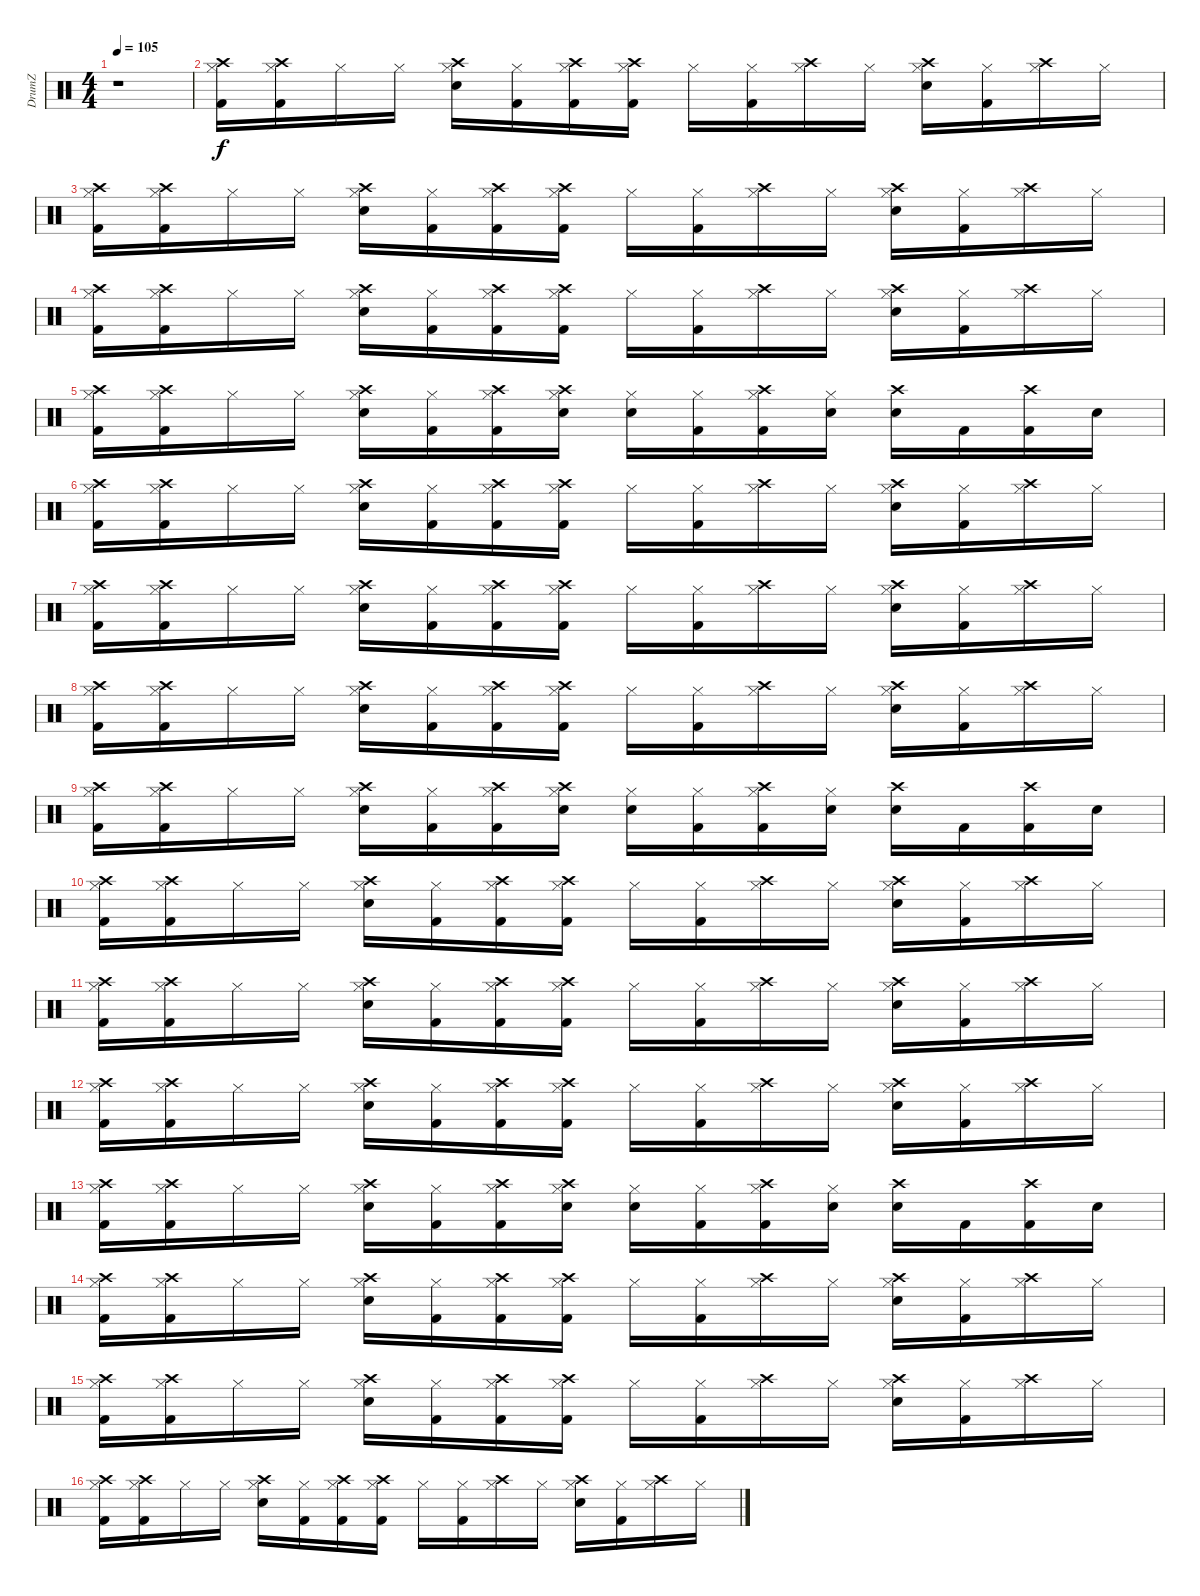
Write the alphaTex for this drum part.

\track ("DrumZ" "DrumZ") {instrument percussion}
\staff {score}
\articulation defaults
\ts (4 4)
\tempo 105
\clef neutral
\ks c
r.1{dy f} |
("Crash high (hit)" "Hi-Hat (closed)" "Kick (hit) 2").16 ("Crash high (hit)" "Hi-Hat (closed)" "Kick (hit) 2").16 "Hi-Hat (closed)".16 "Hi-Hat (closed)".16 ("Crash high (hit)" "Hi-Hat (closed)" "Electric Snare (hit)").16 ("Hi-Hat (closed)" "Kick (hit) 2").16 ("Crash high (hit)" "Hi-Hat (closed)" "Kick (hit) 2").16 ("Crash high (hit)" "Hi-Hat (closed)" "Kick (hit) 2").16 "Hi-Hat (closed)".16 ("Hi-Hat (closed)" "Kick (hit) 2").16 ("Crash high (hit)" "Hi-Hat (closed)").16 "Hi-Hat (closed)".16 ("Crash high (hit)" "Hi-Hat (closed)" "Electric Snare (hit)").16 ("Hi-Hat (closed)" "Kick (hit) 2").16 ("Crash high (hit)" "Hi-Hat (closed)").16 "Hi-Hat (closed)".16 |
("Crash high (hit)" "Hi-Hat (closed)" "Kick (hit) 2").16 ("Crash high (hit)" "Hi-Hat (closed)" "Kick (hit) 2").16 "Hi-Hat (closed)".16 "Hi-Hat (closed)".16 ("Crash high (hit)" "Hi-Hat (closed)" "Electric Snare (hit)").16 ("Hi-Hat (closed)" "Kick (hit) 2").16 ("Crash high (hit)" "Hi-Hat (closed)" "Kick (hit) 2").16 ("Crash high (hit)" "Hi-Hat (closed)" "Kick (hit) 2").16 "Hi-Hat (closed)".16 ("Hi-Hat (closed)" "Kick (hit) 2").16 ("Crash high (hit)" "Hi-Hat (closed)").16 "Hi-Hat (closed)".16 ("Crash high (hit)" "Hi-Hat (closed)" "Electric Snare (hit)").16 ("Hi-Hat (closed)" "Kick (hit) 2").16 ("Crash high (hit)" "Hi-Hat (closed)").16 "Hi-Hat (closed)".16 |
("Crash high (hit)" "Hi-Hat (closed)" "Kick (hit) 2").16 ("Crash high (hit)" "Hi-Hat (closed)" "Kick (hit) 2").16 "Hi-Hat (closed)".16 "Hi-Hat (closed)".16 ("Crash high (hit)" "Hi-Hat (closed)" "Electric Snare (hit)").16 ("Hi-Hat (closed)" "Kick (hit) 2").16 ("Crash high (hit)" "Hi-Hat (closed)" "Kick (hit) 2").16 ("Crash high (hit)" "Hi-Hat (closed)" "Kick (hit) 2").16 "Hi-Hat (closed)".16 ("Hi-Hat (closed)" "Kick (hit) 2").16 ("Crash high (hit)" "Hi-Hat (closed)").16 "Hi-Hat (closed)".16 ("Crash high (hit)" "Hi-Hat (closed)" "Electric Snare (hit)").16 ("Hi-Hat (closed)" "Kick (hit) 2").16 ("Crash high (hit)" "Hi-Hat (closed)").16 "Hi-Hat (closed)".16 |
("Crash high (hit)" "Hi-Hat (closed)" "Kick (hit) 2").16 ("Crash high (hit)" "Hi-Hat (closed)" "Kick (hit) 2").16 "Hi-Hat (closed)".16 "Hi-Hat (closed)".16 ("Crash high (hit)" "Hi-Hat (closed)" "Electric Snare (hit)").16 ("Hi-Hat (closed)" "Kick (hit) 2").16 ("Crash high (hit)" "Hi-Hat (closed)" "Kick (hit) 2").16 ("Crash high (hit)" "Hi-Hat (closed)" "Electric Snare (hit)").16 ("Hi-Hat (closed)" "Electric Snare (hit)").16 ("Hi-Hat (closed)" "Kick (hit) 2").16 ("Crash high (hit)" "Hi-Hat (closed)" "Kick (hit) 2").16 ("Hi-Hat (closed)" "Electric Snare (hit)").16 ("Crash high (hit)" "Electric Snare (hit)").16 "Kick (hit) 2".16 ("Crash high (hit)" "Kick (hit) 2").16 "Electric Snare (hit)".16 |
("Crash high (hit)" "Hi-Hat (closed)" "Kick (hit) 2").16 ("Crash high (hit)" "Hi-Hat (closed)" "Kick (hit) 2").16 "Hi-Hat (closed)".16 "Hi-Hat (closed)".16 ("Crash high (hit)" "Hi-Hat (closed)" "Electric Snare (hit)").16 ("Hi-Hat (closed)" "Kick (hit) 2").16 ("Crash high (hit)" "Hi-Hat (closed)" "Kick (hit) 2").16 ("Crash high (hit)" "Hi-Hat (closed)" "Kick (hit) 2").16 "Hi-Hat (closed)".16 ("Hi-Hat (closed)" "Kick (hit) 2").16 ("Crash high (hit)" "Hi-Hat (closed)").16 "Hi-Hat (closed)".16 ("Crash high (hit)" "Hi-Hat (closed)" "Electric Snare (hit)").16 ("Hi-Hat (closed)" "Kick (hit) 2").16 ("Crash high (hit)" "Hi-Hat (closed)").16 "Hi-Hat (closed)".16 |
("Crash high (hit)" "Hi-Hat (closed)" "Kick (hit) 2").16 ("Crash high (hit)" "Hi-Hat (closed)" "Kick (hit) 2").16 "Hi-Hat (closed)".16 "Hi-Hat (closed)".16 ("Crash high (hit)" "Hi-Hat (closed)" "Electric Snare (hit)").16 ("Hi-Hat (closed)" "Kick (hit) 2").16 ("Crash high (hit)" "Hi-Hat (closed)" "Kick (hit) 2").16 ("Crash high (hit)" "Hi-Hat (closed)" "Kick (hit) 2").16 "Hi-Hat (closed)".16 ("Hi-Hat (closed)" "Kick (hit) 2").16 ("Crash high (hit)" "Hi-Hat (closed)").16 "Hi-Hat (closed)".16 ("Crash high (hit)" "Hi-Hat (closed)" "Electric Snare (hit)").16 ("Hi-Hat (closed)" "Kick (hit) 2").16 ("Crash high (hit)" "Hi-Hat (closed)").16 "Hi-Hat (closed)".16 |
("Crash high (hit)" "Hi-Hat (closed)" "Kick (hit) 2").16 ("Crash high (hit)" "Hi-Hat (closed)" "Kick (hit) 2").16 "Hi-Hat (closed)".16 "Hi-Hat (closed)".16 ("Crash high (hit)" "Hi-Hat (closed)" "Electric Snare (hit)").16 ("Hi-Hat (closed)" "Kick (hit) 2").16 ("Crash high (hit)" "Hi-Hat (closed)" "Kick (hit) 2").16 ("Crash high (hit)" "Hi-Hat (closed)" "Kick (hit) 2").16 "Hi-Hat (closed)".16 ("Hi-Hat (closed)" "Kick (hit) 2").16 ("Crash high (hit)" "Hi-Hat (closed)").16 "Hi-Hat (closed)".16 ("Crash high (hit)" "Hi-Hat (closed)" "Electric Snare (hit)").16 ("Hi-Hat (closed)" "Kick (hit) 2").16 ("Crash high (hit)" "Hi-Hat (closed)").16 "Hi-Hat (closed)".16 |
("Crash high (hit)" "Hi-Hat (closed)" "Kick (hit) 2").16 ("Crash high (hit)" "Hi-Hat (closed)" "Kick (hit) 2").16 "Hi-Hat (closed)".16 "Hi-Hat (closed)".16 ("Crash high (hit)" "Hi-Hat (closed)" "Electric Snare (hit)").16 ("Hi-Hat (closed)" "Kick (hit) 2").16 ("Crash high (hit)" "Hi-Hat (closed)" "Kick (hit) 2").16 ("Crash high (hit)" "Hi-Hat (closed)" "Electric Snare (hit)").16 ("Hi-Hat (closed)" "Electric Snare (hit)").16 ("Hi-Hat (closed)" "Kick (hit) 2").16 ("Crash high (hit)" "Hi-Hat (closed)" "Kick (hit) 2").16 ("Hi-Hat (closed)" "Electric Snare (hit)").16 ("Crash high (hit)" "Electric Snare (hit)").16 "Kick (hit) 2".16 ("Crash high (hit)" "Kick (hit) 2").16 "Electric Snare (hit)".16 |
("Crash high (hit)" "Hi-Hat (closed)" "Kick (hit) 2").16 ("Crash high (hit)" "Hi-Hat (closed)" "Kick (hit) 2").16 "Hi-Hat (closed)".16 "Hi-Hat (closed)".16 ("Crash high (hit)" "Hi-Hat (closed)" "Electric Snare (hit)").16 ("Hi-Hat (closed)" "Kick (hit) 2").16 ("Crash high (hit)" "Hi-Hat (closed)" "Kick (hit) 2").16 ("Crash high (hit)" "Hi-Hat (closed)" "Kick (hit) 2").16 "Hi-Hat (closed)".16 ("Hi-Hat (closed)" "Kick (hit) 2").16 ("Crash high (hit)" "Hi-Hat (closed)").16 "Hi-Hat (closed)".16 ("Crash high (hit)" "Hi-Hat (closed)" "Electric Snare (hit)").16 ("Hi-Hat (closed)" "Kick (hit) 2").16 ("Crash high (hit)" "Hi-Hat (closed)").16 "Hi-Hat (closed)".16 |
("Crash high (hit)" "Hi-Hat (closed)" "Kick (hit) 2").16 ("Crash high (hit)" "Hi-Hat (closed)" "Kick (hit) 2").16 "Hi-Hat (closed)".16 "Hi-Hat (closed)".16 ("Crash high (hit)" "Hi-Hat (closed)" "Electric Snare (hit)").16 ("Hi-Hat (closed)" "Kick (hit) 2").16 ("Crash high (hit)" "Hi-Hat (closed)" "Kick (hit) 2").16 ("Crash high (hit)" "Hi-Hat (closed)" "Kick (hit) 2").16 "Hi-Hat (closed)".16 ("Hi-Hat (closed)" "Kick (hit) 2").16 ("Crash high (hit)" "Hi-Hat (closed)").16 "Hi-Hat (closed)".16 ("Crash high (hit)" "Hi-Hat (closed)" "Electric Snare (hit)").16 ("Hi-Hat (closed)" "Kick (hit) 2").16 ("Crash high (hit)" "Hi-Hat (closed)").16 "Hi-Hat (closed)".16 |
("Crash high (hit)" "Hi-Hat (closed)" "Kick (hit) 2").16 ("Crash high (hit)" "Hi-Hat (closed)" "Kick (hit) 2").16 "Hi-Hat (closed)".16 "Hi-Hat (closed)".16 ("Crash high (hit)" "Hi-Hat (closed)" "Electric Snare (hit)").16 ("Hi-Hat (closed)" "Kick (hit) 2").16 ("Crash high (hit)" "Hi-Hat (closed)" "Kick (hit) 2").16 ("Crash high (hit)" "Hi-Hat (closed)" "Kick (hit) 2").16 "Hi-Hat (closed)".16 ("Hi-Hat (closed)" "Kick (hit) 2").16 ("Crash high (hit)" "Hi-Hat (closed)").16 "Hi-Hat (closed)".16 ("Crash high (hit)" "Hi-Hat (closed)" "Electric Snare (hit)").16 ("Hi-Hat (closed)" "Kick (hit) 2").16 ("Crash high (hit)" "Hi-Hat (closed)").16 "Hi-Hat (closed)".16 |
("Crash high (hit)" "Hi-Hat (closed)" "Kick (hit) 2").16 ("Crash high (hit)" "Hi-Hat (closed)" "Kick (hit) 2").16 "Hi-Hat (closed)".16 "Hi-Hat (closed)".16 ("Crash high (hit)" "Hi-Hat (closed)" "Electric Snare (hit)").16 ("Hi-Hat (closed)" "Kick (hit) 2").16 ("Crash high (hit)" "Hi-Hat (closed)" "Kick (hit) 2").16 ("Crash high (hit)" "Hi-Hat (closed)" "Electric Snare (hit)").16 ("Hi-Hat (closed)" "Electric Snare (hit)").16 ("Hi-Hat (closed)" "Kick (hit) 2").16 ("Crash high (hit)" "Hi-Hat (closed)" "Kick (hit) 2").16 ("Hi-Hat (closed)" "Electric Snare (hit)").16 ("Crash high (hit)" "Electric Snare (hit)").16 "Kick (hit) 2".16 ("Crash high (hit)" "Kick (hit) 2").16 "Electric Snare (hit)".16 |
("Crash high (hit)" "Hi-Hat (closed)" "Kick (hit) 2").16 ("Crash high (hit)" "Hi-Hat (closed)" "Kick (hit) 2").16 "Hi-Hat (closed)".16 "Hi-Hat (closed)".16 ("Crash high (hit)" "Hi-Hat (closed)" "Electric Snare (hit)").16 ("Hi-Hat (closed)" "Kick (hit) 2").16 ("Crash high (hit)" "Hi-Hat (closed)" "Kick (hit) 2").16 ("Crash high (hit)" "Hi-Hat (closed)" "Kick (hit) 2").16 "Hi-Hat (closed)".16 ("Hi-Hat (closed)" "Kick (hit) 2").16 ("Crash high (hit)" "Hi-Hat (closed)").16 "Hi-Hat (closed)".16 ("Crash high (hit)" "Hi-Hat (closed)" "Electric Snare (hit)").16 ("Hi-Hat (closed)" "Kick (hit) 2").16 ("Crash high (hit)" "Hi-Hat (closed)").16 "Hi-Hat (closed)".16 |
("Crash high (hit)" "Hi-Hat (closed)" "Kick (hit) 2").16 ("Crash high (hit)" "Hi-Hat (closed)" "Kick (hit) 2").16 "Hi-Hat (closed)".16 "Hi-Hat (closed)".16 ("Crash high (hit)" "Hi-Hat (closed)" "Electric Snare (hit)").16 ("Hi-Hat (closed)" "Kick (hit) 2").16 ("Crash high (hit)" "Hi-Hat (closed)" "Kick (hit) 2").16 ("Crash high (hit)" "Hi-Hat (closed)" "Kick (hit) 2").16 "Hi-Hat (closed)".16 ("Hi-Hat (closed)" "Kick (hit) 2").16 ("Crash high (hit)" "Hi-Hat (closed)").16 "Hi-Hat (closed)".16 ("Crash high (hit)" "Hi-Hat (closed)" "Electric Snare (hit)").16 ("Hi-Hat (closed)" "Kick (hit) 2").16 ("Crash high (hit)" "Hi-Hat (closed)").16 "Hi-Hat (closed)".16 |
("Crash high (hit)" "Hi-Hat (closed)" "Kick (hit) 2").16 ("Crash high (hit)" "Hi-Hat (closed)" "Kick (hit) 2").16 "Hi-Hat (closed)".16 "Hi-Hat (closed)".16 ("Crash high (hit)" "Hi-Hat (closed)" "Electric Snare (hit)").16 ("Hi-Hat (closed)" "Kick (hit) 2").16 ("Crash high (hit)" "Hi-Hat (closed)" "Kick (hit) 2").16 ("Crash high (hit)" "Hi-Hat (closed)" "Kick (hit) 2").16 "Hi-Hat (closed)".16 ("Hi-Hat (closed)" "Kick (hit) 2").16 ("Crash high (hit)" "Hi-Hat (closed)").16 "Hi-Hat (closed)".16 ("Crash high (hit)" "Hi-Hat (closed)" "Electric Snare (hit)").16 ("Hi-Hat (closed)" "Kick (hit) 2").16 ("Crash high (hit)" "Hi-Hat (closed)").16 "Hi-Hat (closed)".16
